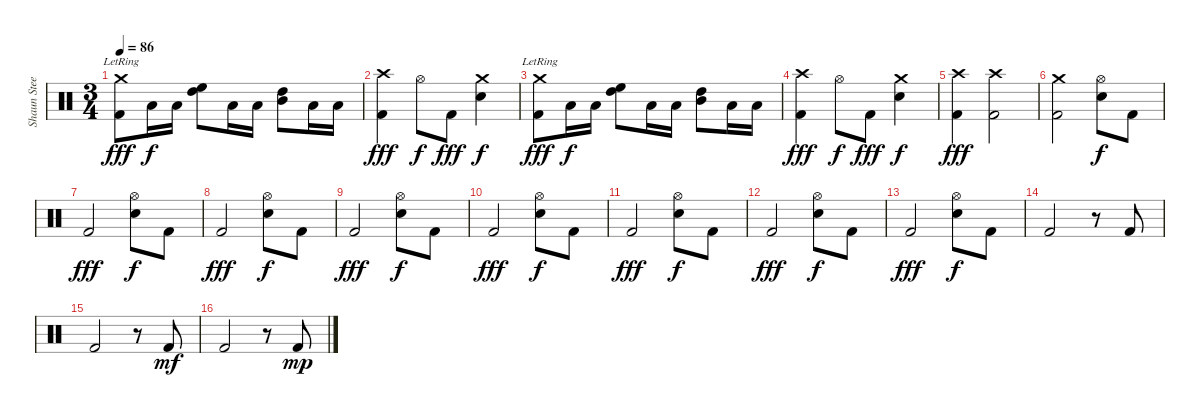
\track ("Shaun Steels (Drums)" "Shaun Stee") {instrument percussion}
\staff {score}
\articulation defaults
\ts (3 4)
\tempo 86
\clef neutral
\ks c
("Crash medium (hit)"{lr} "Kick (hit) 2").8{dy fff} "Low Tom (hit)".16{dy f} "Low Tom (hit)".16 ("High Floor Tom (hit)" "High Tom (hit)").8{bd 120} "Low Tom (hit)".16 "Low Tom (hit)".16 ("High Tom (hit)" "Mid Tom (hit)").8{bd 120} "Low Tom (hit)".16 "Low Tom (hit)".16 |
("Crash high (hit)" "Kick (hit) 2").4{dy fff} "Hi-Hat (open)".8{dy f} "Kick (hit) 2".8{dy fff} ("Crash medium (hit)" "Snare (hit) 2").4{dy f} |
("Crash medium (hit)"{lr} "Kick (hit) 2").8{dy fff} "Low Tom (hit)".16{dy f} "Low Tom (hit)".16 ("High Floor Tom (hit)" "High Tom (hit)").8{bd 120} "Low Tom (hit)".16 "Low Tom (hit)".16 ("High Tom (hit)" "Mid Tom (hit)").8{bd 120} "Low Tom (hit)".16 "Low Tom (hit)".16 |
("Crash high (hit)" "Kick (hit) 2").4{dy fff} "Hi-Hat (open)".8{dy f} "Kick (hit) 2".8{dy fff} ("Crash medium (hit)" "Snare (hit) 2").4{dy f} |
("Crash high (hit)" "Kick (hit) 2").4{dy fff} ("Crash high (hit)" "Kick (hit) 2").2 |
("Crash medium (hit)" "Kick (hit) 2").2 ("Hi-Hat (open)" "Snare (hit) 2").8{dy f} "Kick (hit) 2".8 |
"Kick (hit) 2".2{dy fff} ("Hi-Hat (open)" "Snare (hit) 2").8{dy f} "Kick (hit) 2".8 |
"Kick (hit) 2".2{dy fff} ("Hi-Hat (open)" "Snare (hit) 2").8{dy f} "Kick (hit) 2".8 |
"Kick (hit) 2".2{dy fff} ("Hi-Hat (open)" "Snare (hit) 2").8{dy f} "Kick (hit) 2".8 |
"Kick (hit) 2".2{dy fff} ("Hi-Hat (open)" "Snare (hit) 2").8{dy f} "Kick (hit) 2".8 |
"Kick (hit) 2".2{dy fff} ("Hi-Hat (open)" "Snare (hit) 2").8{dy f} "Kick (hit) 2".8 |
"Kick (hit) 2".2{dy fff} ("Hi-Hat (open)" "Snare (hit) 2").8{dy f} "Kick (hit) 2".8 |
"Kick (hit) 2".2{dy fff} ("Hi-Hat (open)" "Snare (hit) 2").8{dy f} "Kick (hit) 2".8 |
"Kick (hit) 2".2 r.8 "Kick (hit) 2".8 |
"Kick (hit) 2".2 r.8 "Kick (hit) 2".8{dy mf} |
"Kick (hit) 2".2 r.8 "Kick (hit) 2".8{dy mp}
